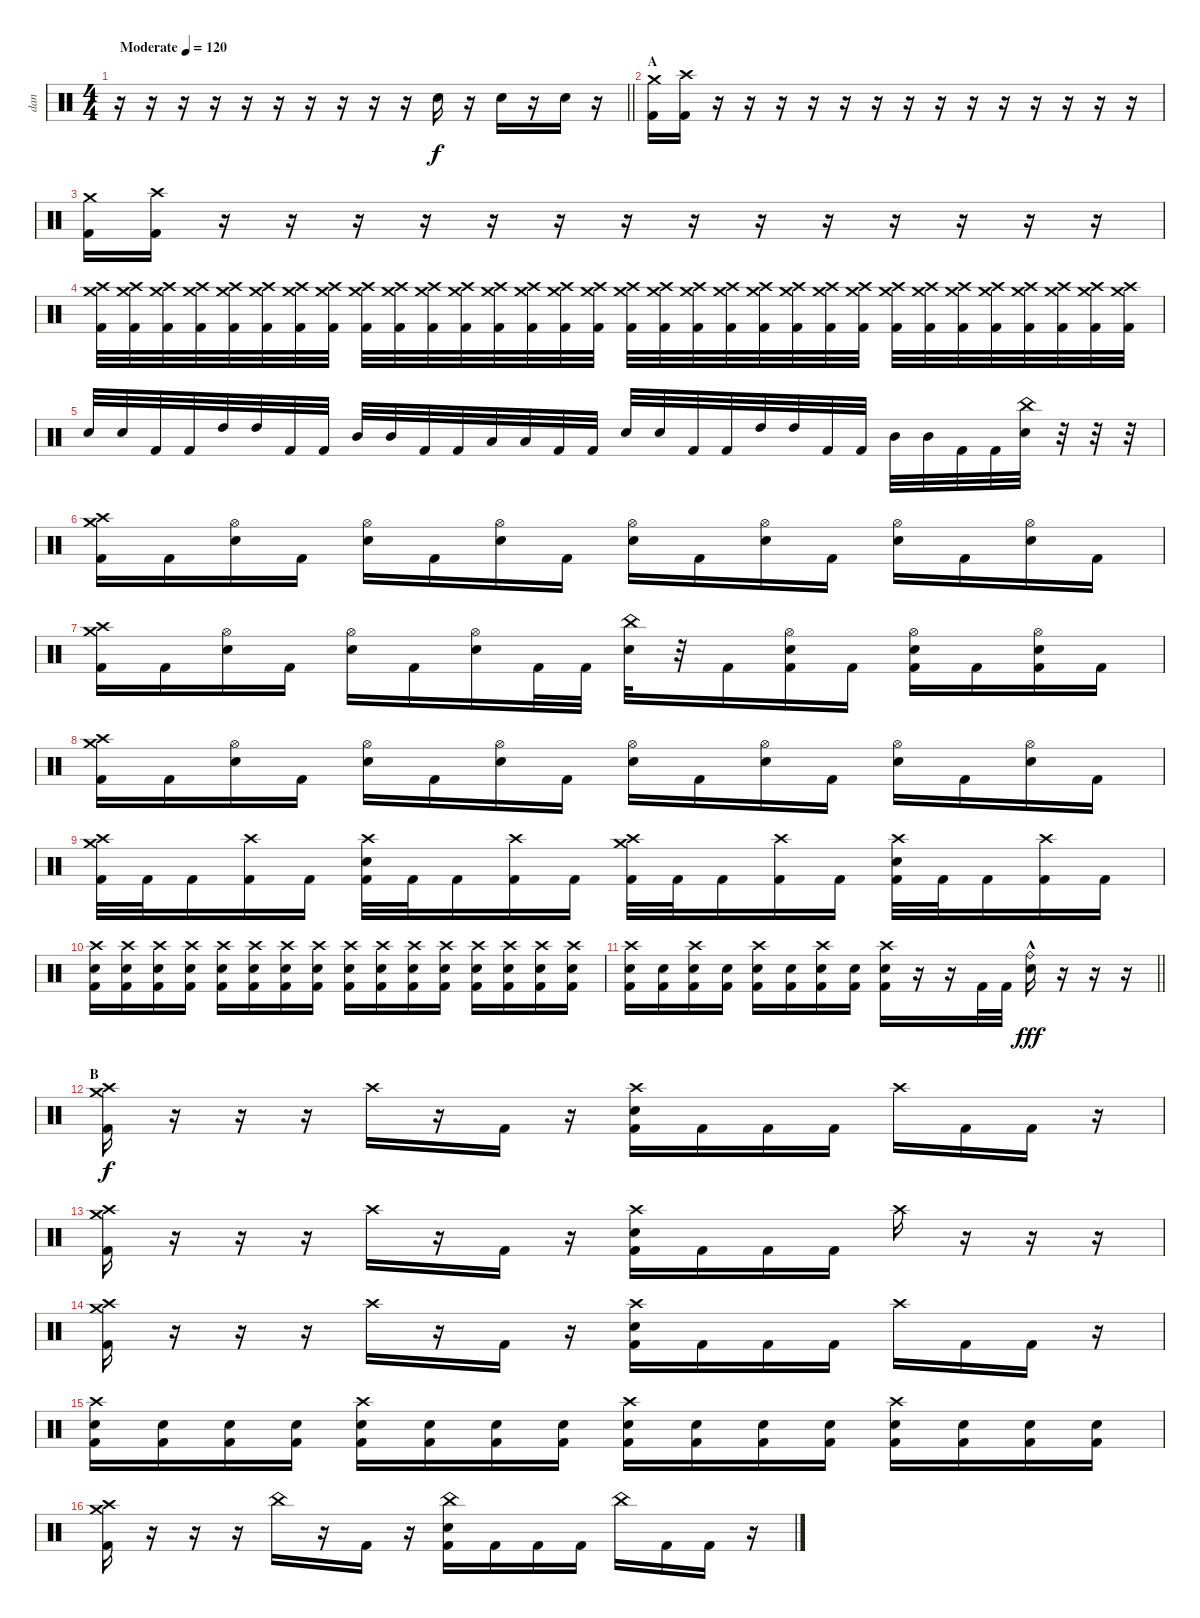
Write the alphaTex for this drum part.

\track ("dan" "dan") {instrument percussion}
\staff {score}
\articulation defaults
\ts (4 4)
\tempo (120 "Moderate")
\clef neutral
\barLineRight lightlight
\ks c
r.16{dy f} r.16 r.16 r.16 r.16 r.16 r.16 r.16 r.16 r.16 "Electric Snare (hit)".16 r.16 "Electric Snare (hit)".16 r.16 "Electric Snare (hit)".16 r.16 |
\section ("" "A")
("Crash medium (hit)" "Kick (hit) 2").16 ("Crash high (hit)" "Kick (hit) 2").16 r.16 r.16 r.16 r.16 r.16 r.16 r.16 r.16 r.16 r.16 r.16 r.16 r.16 r.16 |
("Crash medium (hit)" "Kick (hit) 2").16 ("Crash high (hit)" "Kick (hit) 2").16 r.16 r.16 r.16 r.16 r.16 r.16 r.16 r.16 r.16 r.16 r.16 r.16{volume 0} r.16 r.16 |
("Crash high (hit)" "Crash medium (hit)" "Kick (hit) 2").32{volume 14} ("Crash high (hit)" "Crash medium (hit)" "Kick (hit) 2").32 ("Crash high (hit)" "Crash medium (hit)" "Kick (hit) 2").32 ("Crash high (hit)" "Crash medium (hit)" "Kick (hit) 2").32 ("Crash high (hit)" "Crash medium (hit)" "Kick (hit) 2").32 ("Crash high (hit)" "Crash medium (hit)" "Kick (hit) 2").32 ("Crash high (hit)" "Crash medium (hit)" "Kick (hit) 2").32 ("Crash high (hit)" "Crash medium (hit)" "Kick (hit) 2").32 ("Crash high (hit)" "Crash medium (hit)" "Kick (hit) 2").32 ("Crash high (hit)" "Crash medium (hit)" "Kick (hit) 2").32 ("Crash high (hit)" "Crash medium (hit)" "Kick (hit) 2").32 ("Crash high (hit)" "Crash medium (hit)" "Kick (hit) 2").32 ("Crash high (hit)" "Crash medium (hit)" "Kick (hit) 2").32 ("Crash high (hit)" "Crash medium (hit)" "Kick (hit) 2").32 ("Crash high (hit)" "Crash medium (hit)" "Kick (hit) 2").32 ("Crash high (hit)" "Crash medium (hit)" "Kick (hit) 2").32 ("Crash high (hit)" "Crash medium (hit)" "Kick (hit) 2").32 ("Crash high (hit)" "Crash medium (hit)" "Kick (hit) 2").32 ("Crash high (hit)" "Crash medium (hit)" "Kick (hit) 2").32 ("Crash high (hit)" "Crash medium (hit)" "Kick (hit) 2").32 ("Crash high (hit)" "Crash medium (hit)" "Kick (hit) 2").32 ("Crash high (hit)" "Crash medium (hit)" "Kick (hit) 2").32 ("Crash high (hit)" "Crash medium (hit)" "Kick (hit) 2").32 ("Crash high (hit)" "Crash medium (hit)" "Kick (hit) 2").32 ("Crash high (hit)" "Crash medium (hit)" "Kick (hit) 2").32 ("Crash high (hit)" "Crash medium (hit)" "Kick (hit) 2").32 ("Crash high (hit)" "Crash medium (hit)" "Kick (hit) 2").32 ("Crash high (hit)" "Crash medium (hit)" "Kick (hit) 2").32 ("Crash high (hit)" "Crash medium (hit)" "Kick (hit) 2").32 ("Crash high (hit)" "Crash medium (hit)" "Kick (hit) 2").32 ("Crash high (hit)" "Crash medium (hit)" "Kick (hit) 2").32 ("Crash high (hit)" "Crash medium (hit)" "Kick (hit) 2").32 |
"Electric Snare (hit)".32 "Electric Snare (hit)".32 "Kick (hit) 2".32 "Kick (hit) 2".32 "High Tom (hit)".32 "High Tom (hit)".32 "Kick (hit) 2".32 "Kick (hit) 2".32 "Mid Tom (hit)".32 "Mid Tom (hit)".32 "Kick (hit) 2".32 "Kick (hit) 2".32 "Low Floor Tom (hit)".32 "Low Floor Tom (hit)".32 "Kick (hit) 2".32 "Kick (hit) 2".32 "Electric Snare (hit)".32 "Electric Snare (hit)".32 "Kick (hit) 2".32 "Kick (hit) 2".32 "High Tom (hit)".32 "High Tom (hit)".32 "Kick (hit) 2".32 "Kick (hit) 2".32 "Mid Tom (hit)".32 "Mid Tom (hit)".32 "Kick (hit) 2".32 "Kick (hit) 2".32 ("China (hit)" "Electric Snare (hit)").32 r.32 r.32 r.32 |
("Crash high (hit)" "Crash medium (hit)" "Kick (hit) 2").16 "Kick (hit) 2".16 ("Hi-Hat (open)" "Electric Snare (hit)").16 "Kick (hit) 2".16 ("Hi-Hat (open)" "Electric Snare (hit)").16 "Kick (hit) 2".16 ("Hi-Hat (open)" "Electric Snare (hit)").16 "Kick (hit) 2".16 ("Hi-Hat (open)" "Electric Snare (hit)").16 "Kick (hit) 2".16 ("Hi-Hat (open)" "Electric Snare (hit)").16 "Kick (hit) 2".16 ("Hi-Hat (open)" "Electric Snare (hit)").16 "Kick (hit) 2".16 ("Hi-Hat (open)" "Electric Snare (hit)").16 "Kick (hit) 2".16 |
("Crash high (hit)" "Crash medium (hit)" "Kick (hit) 2").16 "Kick (hit) 2".16 ("Hi-Hat (open)" "Electric Snare (hit)").16 "Kick (hit) 2".16 ("Hi-Hat (open)" "Electric Snare (hit)").16 "Kick (hit) 2".16 ("Hi-Hat (open)" "Electric Snare (hit)").16 "Kick (hit) 2".32 "Kick (hit) 2".32 ("China (hit)" "Electric Snare (hit)").32 r.32 "Kick (hit) 2".16 ("Hi-Hat (open)" "Electric Snare (hit)" "Kick (hit) 2").16 "Kick (hit) 2".16 ("Hi-Hat (open)" "Electric Snare (hit)" "Kick (hit) 2").16 "Kick (hit) 2".16 ("Hi-Hat (open)" "Electric Snare (hit)" "Kick (hit) 2").16 "Kick (hit) 2".16 |
("Crash high (hit)" "Crash medium (hit)" "Kick (hit) 2").16 "Kick (hit) 2".16 ("Hi-Hat (open)" "Electric Snare (hit)").16 "Kick (hit) 2".16 ("Hi-Hat (open)" "Electric Snare (hit)").16 "Kick (hit) 2".16 ("Hi-Hat (open)" "Electric Snare (hit)").16 "Kick (hit) 2".16 ("Hi-Hat (open)" "Electric Snare (hit)").16 "Kick (hit) 2".16 ("Hi-Hat (open)" "Electric Snare (hit)").16 "Kick (hit) 2".16 ("Hi-Hat (open)" "Electric Snare (hit)").16 "Kick (hit) 2".16 ("Hi-Hat (open)" "Electric Snare (hit)").16 "Kick (hit) 2".16 |
("Crash high (hit)" "Crash medium (hit)" "Kick (hit) 2").32 "Kick (hit) 2".32 "Kick (hit) 2".16 ("Crash high (hit)" "Kick (hit) 2").16 "Kick (hit) 2".16 ("Crash high (hit)" "Electric Snare (hit)" "Kick (hit) 2").32 "Kick (hit) 2".32 "Kick (hit) 2".16 ("Crash high (hit)" "Kick (hit) 2").16 "Kick (hit) 2".16 ("Crash high (hit)" "Crash medium (hit)" "Kick (hit) 2").32 "Kick (hit) 2".32 "Kick (hit) 2".16 ("Crash high (hit)" "Kick (hit) 2").16 "Kick (hit) 2".16 ("Crash high (hit)" "Electric Snare (hit)" "Kick (hit) 2").32 "Kick (hit) 2".32 "Kick (hit) 2".16 ("Crash high (hit)" "Kick (hit) 2").16 "Kick (hit) 2".16 |
("Crash high (hit)" "Electric Snare (hit)" "Kick (hit) 2").16 ("Crash high (hit)" "Electric Snare (hit)" "Kick (hit) 2").16 ("Crash high (hit)" "Electric Snare (hit)" "Kick (hit) 2").16 ("Crash high (hit)" "Electric Snare (hit)" "Kick (hit) 2").16 ("Crash high (hit)" "Electric Snare (hit)" "Kick (hit) 2").16 ("Crash high (hit)" "Electric Snare (hit)" "Kick (hit) 2").16 ("Crash high (hit)" "Electric Snare (hit)" "Kick (hit) 2").16 ("Crash high (hit)" "Electric Snare (hit)" "Kick (hit) 2").16 ("Crash high (hit)" "Electric Snare (hit)" "Kick (hit) 2").16 ("Crash high (hit)" "Electric Snare (hit)" "Kick (hit) 2").16 ("Crash high (hit)" "Electric Snare (hit)" "Kick (hit) 2").16 ("Crash high (hit)" "Electric Snare (hit)" "Kick (hit) 2").16 ("Crash high (hit)" "Electric Snare (hit)" "Kick (hit) 2").16 ("Crash high (hit)" "Electric Snare (hit)" "Kick (hit) 2").16 ("Crash high (hit)" "Electric Snare (hit)" "Kick (hit) 2").16 ("Crash high (hit)" "Electric Snare (hit)" "Kick (hit) 2").16 |
\barLineRight lightlight
("Crash high (hit)" "Electric Snare (hit)" "Kick (hit) 2").16 ("Electric Snare (hit)" "Kick (hit) 2").16 ("Crash high (hit)" "Electric Snare (hit)" "Kick (hit) 2").16 ("Electric Snare (hit)" "Kick (hit) 2").16 ("Crash high (hit)" "Electric Snare (hit)" "Kick (hit) 2").16 ("Electric Snare (hit)" "Kick (hit) 2").16 ("Crash high (hit)" "Electric Snare (hit)" "Kick (hit) 2").16 ("Electric Snare (hit)" "Kick (hit) 2").16 ("Crash high (hit)" "Electric Snare (hit)" "Kick (hit) 2").16 r.16 r.16 "Kick (hit) 2".32 "Kick (hit) 2".32 ("Ride (bell)"{hac} "Electric Snare (hit)").16{dy fff} r.16 r.16 r.16 |
\section ("" "B")
("Crash high (hit)" "Crash medium (hit)" "Kick (hit) 2").16{dy f} r.16 r.16 r.16 "Crash high (hit)".16 r.16 "Kick (hit) 2".16 r.16 ("Crash high (hit)" "Electric Snare (hit)" "Kick (hit) 2").16 "Kick (hit) 2".16 "Kick (hit) 2".16 "Kick (hit) 2".16 "Crash high (hit)".16 "Kick (hit) 2".16 "Kick (hit) 2".16 r.16 |
("Crash high (hit)" "Crash medium (hit)" "Kick (hit) 2").16 r.16 r.16 r.16 "Crash high (hit)".16 r.16 "Kick (hit) 2".16 r.16 ("Crash high (hit)" "Electric Snare (hit)" "Kick (hit) 2").16 "Kick (hit) 2".16 "Kick (hit) 2".16 "Kick (hit) 2".16 "Crash high (hit)".16 r.16 r.16 r.16 |
("Crash high (hit)" "Crash medium (hit)" "Kick (hit) 2").16 r.16 r.16 r.16 "Crash high (hit)".16 r.16 "Kick (hit) 2".16 r.16 ("Crash high (hit)" "Electric Snare (hit)" "Kick (hit) 2").16 "Kick (hit) 2".16 "Kick (hit) 2".16 "Kick (hit) 2".16 "Crash high (hit)".16 "Kick (hit) 2".16 "Kick (hit) 2".16 r.16 |
("Crash high (hit)" "Electric Snare (hit)" "Kick (hit) 2").16 ("Electric Snare (hit)" "Kick (hit) 2").16 ("Electric Snare (hit)" "Kick (hit) 2").16 ("Electric Snare (hit)" "Kick (hit) 2").16 ("Crash high (hit)" "Electric Snare (hit)" "Kick (hit) 2").16 ("Electric Snare (hit)" "Kick (hit) 2").16 ("Electric Snare (hit)" "Kick (hit) 2").16 ("Electric Snare (hit)" "Kick (hit) 2").16 ("Crash high (hit)" "Electric Snare (hit)" "Kick (hit) 2").16 ("Electric Snare (hit)" "Kick (hit) 2").16 ("Electric Snare (hit)" "Kick (hit) 2").16 ("Electric Snare (hit)" "Kick (hit) 2").16 ("Crash high (hit)" "Electric Snare (hit)" "Kick (hit) 2").16 ("Electric Snare (hit)" "Kick (hit) 2").16 ("Electric Snare (hit)" "Kick (hit) 2").16 ("Electric Snare (hit)" "Kick (hit) 2").16 |
("Crash high (hit)" "Crash medium (hit)" "Kick (hit) 2").16 r.16 r.16 r.16 "China (hit)".16 r.16 "Kick (hit) 2".16 r.16 ("China (hit)" "Electric Snare (hit)" "Kick (hit) 2").16 "Kick (hit) 2".16 "Kick (hit) 2".16 "Kick (hit) 2".16 "China (hit)".16 "Kick (hit) 2".16 "Kick (hit) 2".16 r.16
